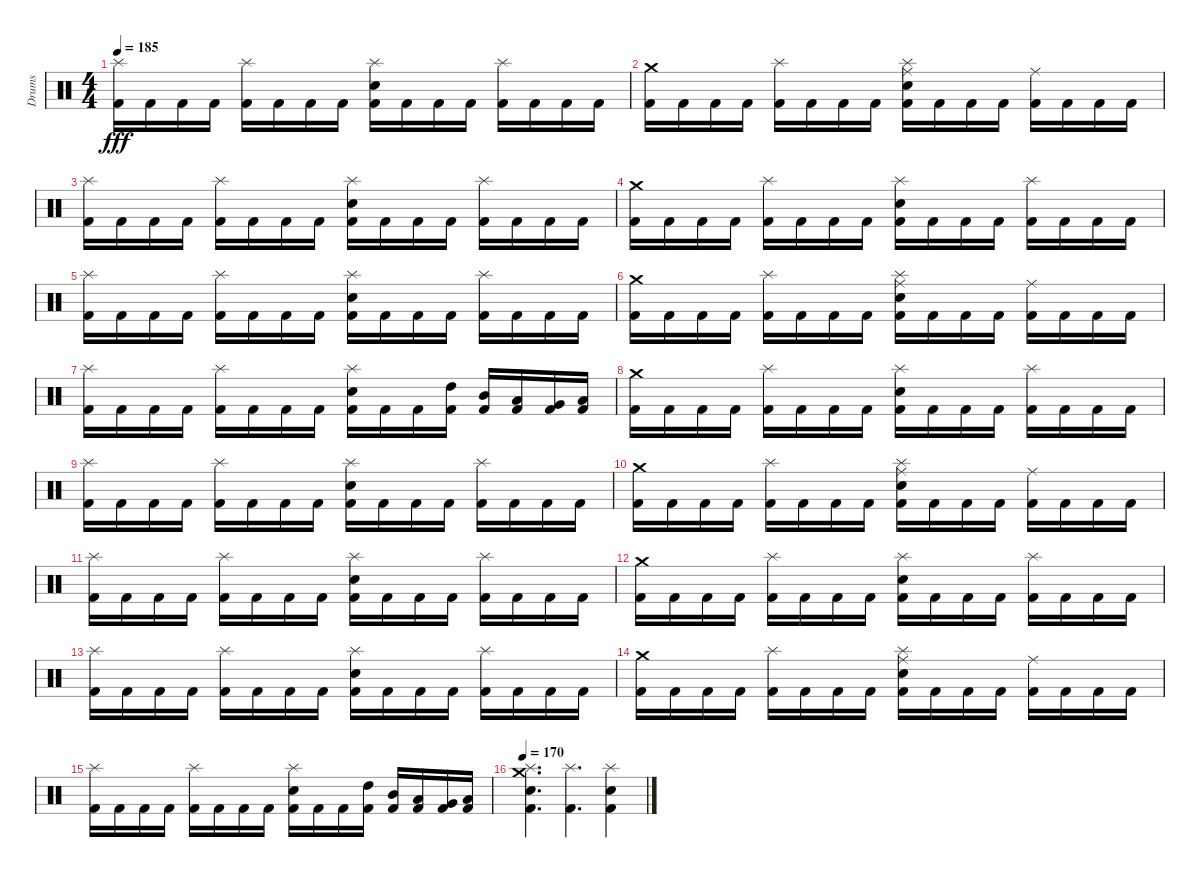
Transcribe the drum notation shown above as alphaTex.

\track ("Drums" "Drums") {instrument percussion}
\staff {score}
\articulation defaults
\ts (4 4)
\tempo 185
\clef neutral
\ks c
("Splash (hit)" "Kick (hit) 2").16{dy fff} "Kick (hit) 2".16 "Kick (hit) 2".16 "Kick (hit) 2".16 ("Splash (hit)" "Kick (hit) 2").16 "Kick (hit) 2".16 "Kick (hit) 2".16 "Kick (hit) 2".16 ("Splash (hit)" "Electric Snare (hit)" "Kick (hit) 2").16 "Kick (hit) 2".16 "Kick (hit) 2".16 "Kick (hit) 2".16 ("Splash (hit)" "Kick (hit) 2").16 "Kick (hit) 2".16 "Kick (hit) 2".16 "Kick (hit) 2".16 |
("Crash medium (hit)" "Kick (hit) 2").16 "Kick (hit) 2".16 "Kick (hit) 2".16 "Kick (hit) 2".16 ("Splash (hit)" "Kick (hit) 2").16 "Kick (hit) 2".16 "Kick (hit) 2".16 "Kick (hit) 2".16 ("Splash (hit)" "Ride (middle)" "Electric Snare (hit)" "Kick (hit) 2").16 "Kick (hit) 2".16 "Kick (hit) 2".16 "Kick (hit) 2".16 ("Ride (middle)" "Kick (hit) 2").16 "Kick (hit) 2".16 "Kick (hit) 2".16 "Kick (hit) 2".16 |
("Splash (hit)" "Kick (hit) 2").16 "Kick (hit) 2".16 "Kick (hit) 2".16 "Kick (hit) 2".16 ("Splash (hit)" "Kick (hit) 2").16 "Kick (hit) 2".16 "Kick (hit) 2".16 "Kick (hit) 2".16 ("Splash (hit)" "Electric Snare (hit)" "Kick (hit) 2").16 "Kick (hit) 2".16 "Kick (hit) 2".16 "Kick (hit) 2".16 ("Splash (hit)" "Kick (hit) 2").16 "Kick (hit) 2".16 "Kick (hit) 2".16 "Kick (hit) 2".16 |
("Crash medium (hit)" "Kick (hit) 2").16 "Kick (hit) 2".16 "Kick (hit) 2".16 "Kick (hit) 2".16 ("Splash (hit)" "Kick (hit) 2").16 "Kick (hit) 2".16 "Kick (hit) 2".16 "Kick (hit) 2".16 ("Splash (hit)" "Electric Snare (hit)" "Kick (hit) 2").16 "Kick (hit) 2".16 "Kick (hit) 2".16 "Kick (hit) 2".16 ("Splash (hit)" "Kick (hit) 2").16 "Kick (hit) 2".16 "Kick (hit) 2".16 "Kick (hit) 2".16 |
("Splash (hit)" "Kick (hit) 2").16 "Kick (hit) 2".16 "Kick (hit) 2".16 "Kick (hit) 2".16 ("Splash (hit)" "Kick (hit) 2").16 "Kick (hit) 2".16 "Kick (hit) 2".16 "Kick (hit) 2".16 ("Splash (hit)" "Electric Snare (hit)" "Kick (hit) 2").16 "Kick (hit) 2".16 "Kick (hit) 2".16 "Kick (hit) 2".16 ("Splash (hit)" "Kick (hit) 2").16 "Kick (hit) 2".16 "Kick (hit) 2".16 "Kick (hit) 2".16 |
("Crash medium (hit)" "Kick (hit) 2").16 "Kick (hit) 2".16 "Kick (hit) 2".16 "Kick (hit) 2".16 ("Splash (hit)" "Kick (hit) 2").16 "Kick (hit) 2".16 "Kick (hit) 2".16 "Kick (hit) 2".16 ("Splash (hit)" "Ride (middle)" "Electric Snare (hit)" "Kick (hit) 2").16 "Kick (hit) 2".16 "Kick (hit) 2".16 "Kick (hit) 2".16 ("Ride (middle)" "Kick (hit) 2").16 "Kick (hit) 2".16 "Kick (hit) 2".16 "Kick (hit) 2".16 |
("Splash (hit)" "Kick (hit) 2").16 "Kick (hit) 2".16 "Kick (hit) 2".16 "Kick (hit) 2".16 ("Splash (hit)" "Kick (hit) 2").16 "Kick (hit) 2".16 "Kick (hit) 2".16 "Kick (hit) 2".16 ("Splash (hit)" "Electric Snare (hit)" "Kick (hit) 2").16 "Kick (hit) 2".16 "Kick (hit) 2".16 ("High Tom (hit)" "Kick (hit) 2").16 ("Mid Tom (hit)" "Kick (hit) 2").16 ("Low Tom (hit)" "Kick (hit) 2").16 ("Very Low Tom (hit)" "Kick (hit) 2").16 ("Low Floor Tom (hit)" "Kick (hit) 2").16 |
("Crash medium (hit)" "Kick (hit) 2").16 "Kick (hit) 2".16 "Kick (hit) 2".16 "Kick (hit) 2".16 ("Splash (hit)" "Kick (hit) 2").16 "Kick (hit) 2".16 "Kick (hit) 2".16 "Kick (hit) 2".16 ("Splash (hit)" "Electric Snare (hit)" "Kick (hit) 2").16 "Kick (hit) 2".16 "Kick (hit) 2".16 "Kick (hit) 2".16 ("Splash (hit)" "Kick (hit) 2").16 "Kick (hit) 2".16 "Kick (hit) 2".16 "Kick (hit) 2".16 |
("Splash (hit)" "Kick (hit) 2").16 "Kick (hit) 2".16 "Kick (hit) 2".16 "Kick (hit) 2".16 ("Splash (hit)" "Kick (hit) 2").16 "Kick (hit) 2".16 "Kick (hit) 2".16 "Kick (hit) 2".16 ("Splash (hit)" "Electric Snare (hit)" "Kick (hit) 2").16 "Kick (hit) 2".16 "Kick (hit) 2".16 "Kick (hit) 2".16 ("Splash (hit)" "Kick (hit) 2").16 "Kick (hit) 2".16 "Kick (hit) 2".16 "Kick (hit) 2".16 |
("Crash medium (hit)" "Kick (hit) 2").16 "Kick (hit) 2".16 "Kick (hit) 2".16 "Kick (hit) 2".16 ("Splash (hit)" "Kick (hit) 2").16 "Kick (hit) 2".16 "Kick (hit) 2".16 "Kick (hit) 2".16 ("Splash (hit)" "Ride (middle)" "Electric Snare (hit)" "Kick (hit) 2").16 "Kick (hit) 2".16 "Kick (hit) 2".16 "Kick (hit) 2".16 ("Ride (middle)" "Kick (hit) 2").16 "Kick (hit) 2".16 "Kick (hit) 2".16 "Kick (hit) 2".16 |
("Splash (hit)" "Kick (hit) 2").16 "Kick (hit) 2".16 "Kick (hit) 2".16 "Kick (hit) 2".16 ("Splash (hit)" "Kick (hit) 2").16 "Kick (hit) 2".16 "Kick (hit) 2".16 "Kick (hit) 2".16 ("Splash (hit)" "Electric Snare (hit)" "Kick (hit) 2").16 "Kick (hit) 2".16 "Kick (hit) 2".16 "Kick (hit) 2".16 ("Splash (hit)" "Kick (hit) 2").16 "Kick (hit) 2".16 "Kick (hit) 2".16 "Kick (hit) 2".16 |
("Crash medium (hit)" "Kick (hit) 2").16 "Kick (hit) 2".16 "Kick (hit) 2".16 "Kick (hit) 2".16 ("Splash (hit)" "Kick (hit) 2").16 "Kick (hit) 2".16 "Kick (hit) 2".16 "Kick (hit) 2".16 ("Splash (hit)" "Electric Snare (hit)" "Kick (hit) 2").16 "Kick (hit) 2".16 "Kick (hit) 2".16 "Kick (hit) 2".16 ("Splash (hit)" "Kick (hit) 2").16 "Kick (hit) 2".16 "Kick (hit) 2".16 "Kick (hit) 2".16 |
("Splash (hit)" "Kick (hit) 2").16 "Kick (hit) 2".16 "Kick (hit) 2".16 "Kick (hit) 2".16 ("Splash (hit)" "Kick (hit) 2").16 "Kick (hit) 2".16 "Kick (hit) 2".16 "Kick (hit) 2".16 ("Splash (hit)" "Electric Snare (hit)" "Kick (hit) 2").16 "Kick (hit) 2".16 "Kick (hit) 2".16 "Kick (hit) 2".16 ("Splash (hit)" "Kick (hit) 2").16 "Kick (hit) 2".16 "Kick (hit) 2".16 "Kick (hit) 2".16 |
("Crash medium (hit)" "Kick (hit) 2").16 "Kick (hit) 2".16 "Kick (hit) 2".16 "Kick (hit) 2".16 ("Splash (hit)" "Kick (hit) 2").16 "Kick (hit) 2".16 "Kick (hit) 2".16 "Kick (hit) 2".16 ("Splash (hit)" "Ride (middle)" "Electric Snare (hit)" "Kick (hit) 2").16 "Kick (hit) 2".16 "Kick (hit) 2".16 "Kick (hit) 2".16 ("Ride (middle)" "Kick (hit) 2").16 "Kick (hit) 2".16 "Kick (hit) 2".16 "Kick (hit) 2".16 |
("Splash (hit)" "Kick (hit) 2").16 "Kick (hit) 2".16 "Kick (hit) 2".16 "Kick (hit) 2".16 ("Splash (hit)" "Kick (hit) 2").16 "Kick (hit) 2".16 "Kick (hit) 2".16 "Kick (hit) 2".16 ("Splash (hit)" "Electric Snare (hit)" "Kick (hit) 2").16 "Kick (hit) 2".16 "Kick (hit) 2".16 ("High Tom (hit)" "Kick (hit) 2").16 ("Mid Tom (hit)" "Kick (hit) 2").16 ("Low Tom (hit)" "Kick (hit) 2").16 ("Very Low Tom (hit)" "Kick (hit) 2").16 ("Low Floor Tom (hit)" "Kick (hit) 2").16 |
\tempo 170
("Crash medium (hit)" "Splash (hit)" "Electric Snare (hit)" "Kick (hit) 2").4{d} ("Splash (hit)" "Kick (hit) 2").4{d} ("Splash (hit)" "Electric Snare (hit)" "Kick (hit) 2").4
